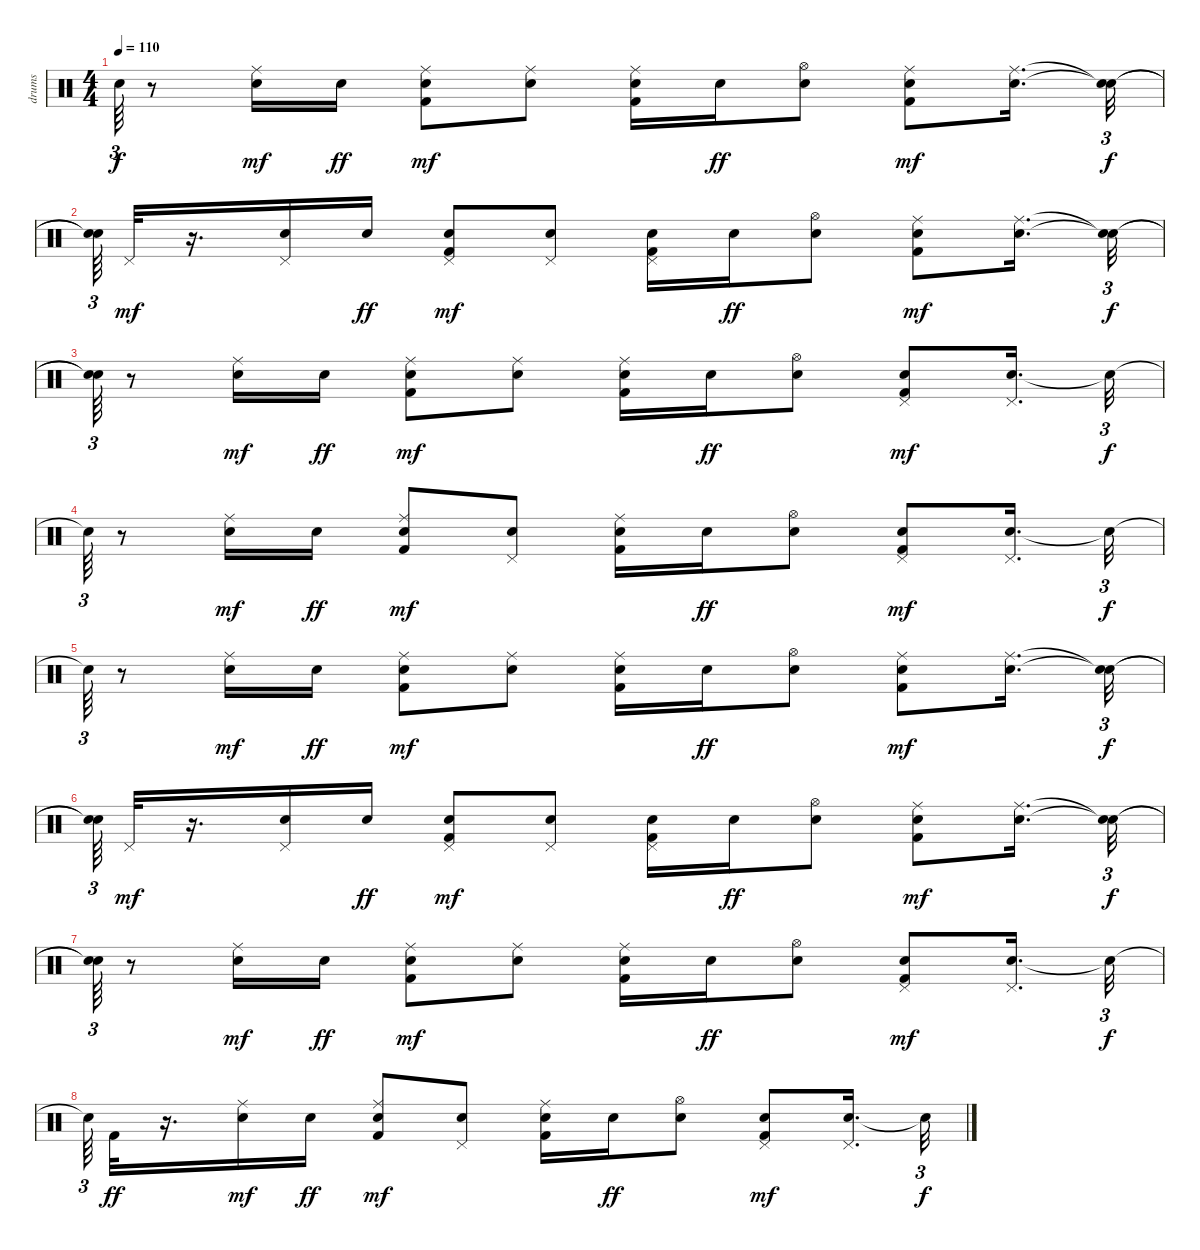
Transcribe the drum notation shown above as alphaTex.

\track ("drums               " "drums     ") {instrument percussion}
\staff {score}
\articulation defaults
\ts (4 4)
\tempo 110
\clef neutral
\ks c "Snare (hit)"{t}.64{tu (3 2) dy f}
r.8 ("Snare (hit) 2" "Ride (middle)").16{dy mf} "Snare (hit) 2".16{dy ff} ("Kick (hit) 2" "Snare (hit) 2" "Ride (middle)").8{dy mf} ("Snare (hit) 2" "Ride (middle)").8 ("Kick (hit) 2" "Snare (hit) 2" "Ride (middle)").16 "Snare (hit) 2".16{dy ff} ("Snare (hit) 2" "Hi-Hat (open)").8 ("Kick (hit) 2" "Snare (hit) 2" "Ride (middle)").8{dy mf} ("Snare (hit) 2" "Ride (middle)").16{d} ("Snare (hit)"{t} "Snare (hit)"{t}).32{tu (3 2) dy f} |
("Snare (hit)"{t} "Snare (hit)"{t}).64{tu (3 2)} "Pedal Hi-Hat (hit)".32{dy mf} r.16{d} ("Snare (hit) 2" "Pedal Hi-Hat (hit)").16 "Snare (hit) 2".16{dy ff} ("Kick (hit) 2" "Snare (hit) 2" "Pedal Hi-Hat (hit)").8{dy mf} ("Snare (hit) 2" "Pedal Hi-Hat (hit)").8 ("Kick (hit) 2" "Snare (hit) 2" "Pedal Hi-Hat (hit)").16 "Snare (hit) 2".16{dy ff} ("Snare (hit) 2" "Hi-Hat (open)").8 ("Kick (hit) 2" "Snare (hit) 2" "Ride (middle)").8{dy mf} ("Snare (hit) 2" "Ride (middle)").16{d} ("Snare (hit)"{t} "Snare (hit)"{t}).32{tu (3 2) dy f} |
("Snare (hit)"{t} "Snare (hit)"{t}).64{tu (3 2)} r.8 ("Snare (hit) 2" "Ride (middle)").16{dy mf} "Snare (hit) 2".16{dy ff} ("Kick (hit) 2" "Snare (hit) 2" "Ride (middle)").8{dy mf} ("Snare (hit) 2" "Ride (middle)").8 ("Kick (hit) 2" "Snare (hit) 2" "Ride (middle)").16 "Snare (hit) 2".16{dy ff} ("Snare (hit) 2" "Hi-Hat (open)").8 ("Kick (hit) 2" "Snare (hit) 2" "Pedal Hi-Hat (hit)").8{dy mf} ("Snare (hit) 2" "Pedal Hi-Hat (hit)").16{d} "Snare (hit)"{t}.32{tu (3 2) dy f} |
"Snare (hit)"{t}.64{tu (3 2)} r.8 ("Snare (hit) 2" "Ride (middle)").16{dy mf} "Snare (hit) 2".16{dy ff} ("Kick (hit) 2" "Snare (hit) 2" "Ride (middle)").8{dy mf} ("Snare (hit) 2" "Pedal Hi-Hat (hit)").8 ("Kick (hit) 2" "Snare (hit) 2" "Ride (middle)").16 "Snare (hit) 2".16{dy ff} ("Snare (hit) 2" "Hi-Hat (open)").8 ("Kick (hit) 2" "Snare (hit) 2" "Pedal Hi-Hat (hit)").8{dy mf} ("Snare (hit) 2" "Pedal Hi-Hat (hit)").16{d} "Snare (hit)"{t}.32{tu (3 2) dy f} |
"Snare (hit)"{t}.64{tu (3 2)} r.8 ("Snare (hit) 2" "Ride (middle)").16{dy mf} "Snare (hit) 2".16{dy ff} ("Kick (hit) 2" "Snare (hit) 2" "Ride (middle)").8{dy mf} ("Snare (hit) 2" "Ride (middle)").8 ("Kick (hit) 2" "Snare (hit) 2" "Ride (middle)").16 "Snare (hit) 2".16{dy ff} ("Snare (hit) 2" "Hi-Hat (open)").8 ("Kick (hit) 2" "Snare (hit) 2" "Ride (middle)").8{dy mf} ("Snare (hit) 2" "Ride (middle)").16{d} ("Snare (hit)"{t} "Snare (hit)"{t}).32{tu (3 2) dy f} |
("Snare (hit)"{t} "Snare (hit)"{t}).64{tu (3 2)} "Pedal Hi-Hat (hit)".32{dy mf} r.16{d} ("Snare (hit) 2" "Pedal Hi-Hat (hit)").16 "Snare (hit) 2".16{dy ff} ("Kick (hit) 2" "Snare (hit) 2" "Pedal Hi-Hat (hit)").8{dy mf} ("Snare (hit) 2" "Pedal Hi-Hat (hit)").8 ("Kick (hit) 2" "Snare (hit) 2" "Pedal Hi-Hat (hit)").16 "Snare (hit) 2".16{dy ff} ("Snare (hit) 2" "Hi-Hat (open)").8 ("Kick (hit) 2" "Snare (hit) 2" "Ride (middle)").8{dy mf} ("Snare (hit) 2" "Ride (middle)").16{d} ("Snare (hit)"{t} "Snare (hit)"{t}).32{tu (3 2) dy f} |
("Snare (hit)"{t} "Snare (hit)"{t}).64{tu (3 2)} r.8 ("Snare (hit) 2" "Ride (middle)").16{dy mf} "Snare (hit) 2".16{dy ff} ("Kick (hit) 2" "Snare (hit) 2" "Ride (middle)").8{dy mf} ("Snare (hit) 2" "Ride (middle)").8 ("Kick (hit) 2" "Snare (hit) 2" "Ride (middle)").16 "Snare (hit) 2".16{dy ff} ("Snare (hit) 2" "Hi-Hat (open)").8 ("Kick (hit) 2" "Snare (hit) 2" "Pedal Hi-Hat (hit)").8{dy mf} ("Snare (hit) 2" "Pedal Hi-Hat (hit)").16{d} "Snare (hit)"{t}.32{tu (3 2) dy f} |
"Snare (hit)"{t}.64{tu (3 2)} "Kick (hit) 2".32{dy ff} r.16{d} ("Snare (hit) 2" "Ride (middle)").16{dy mf} "Snare (hit) 2".16{dy ff} ("Kick (hit) 2" "Snare (hit) 2" "Ride (middle)").8{dy mf} ("Snare (hit) 2" "Pedal Hi-Hat (hit)").8 ("Kick (hit) 2" "Snare (hit) 2" "Ride (middle)").16 "Snare (hit) 2".16{dy ff} ("Snare (hit) 2" "Hi-Hat (open)").8 ("Kick (hit) 2" "Snare (hit) 2" "Pedal Hi-Hat (hit)").8{dy mf} ("Snare (hit) 2" "Pedal Hi-Hat (hit)").16{d} "Snare (hit)"{t}.32{tu (3 2) dy f}
